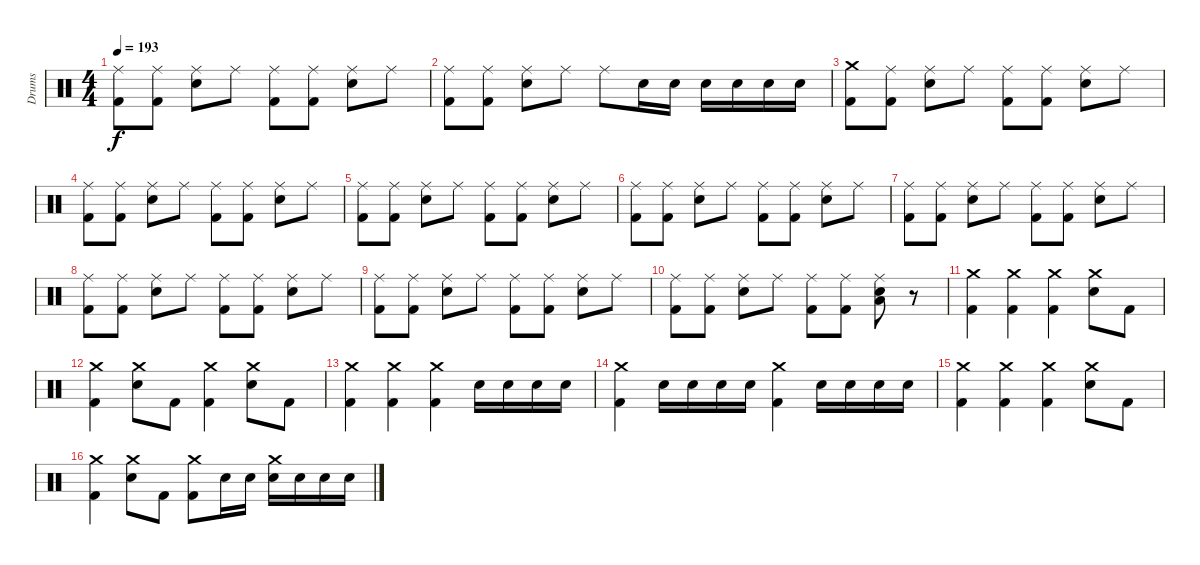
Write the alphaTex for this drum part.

\track ("Drums" "Drums") {instrument percussion}
\staff {score}
\articulation defaults
\ts (4 4)
\tempo 193
\clef neutral
\ks c
("Ride (middle)" "Kick (hit) 2").8{dy f} ("Ride (middle)" "Kick (hit) 2").8 ("Ride (middle)" "Snare (hit) 2").8 "Ride (middle)".8 ("Ride (middle)" "Kick (hit) 2").8 ("Ride (middle)" "Kick (hit) 2").8 ("Ride (middle)" "Snare (hit) 2").8 "Ride (middle)".8 |
("Ride (middle)" "Kick (hit) 2").8 ("Ride (middle)" "Kick (hit) 2").8 ("Ride (middle)" "Snare (hit) 2").8 "Ride (middle)".8 "Ride (middle)".8 "Snare (hit) 2".16 "Snare (hit) 2".16 "Snare (hit) 2".16 "Snare (hit) 2".16 "Snare (hit) 2".16 "Snare (hit) 2".16 |
("Crash medium (hit)" "Kick (hit) 2").8 ("Ride (middle)" "Kick (hit) 2").8 ("Ride (middle)" "Snare (hit) 2").8 "Ride (middle)".8 ("Ride (middle)" "Kick (hit) 2").8 ("Ride (middle)" "Kick (hit) 2").8 ("Ride (middle)" "Snare (hit) 2").8 "Ride (middle)".8 |
("Ride (middle)" "Kick (hit) 2").8 ("Ride (middle)" "Kick (hit) 2").8 ("Ride (middle)" "Snare (hit) 2").8 "Ride (middle)".8 ("Ride (middle)" "Kick (hit) 2").8 ("Ride (middle)" "Kick (hit) 2").8 ("Ride (middle)" "Snare (hit) 2").8 "Ride (middle)".8 |
("Ride (middle)" "Kick (hit) 2").8 ("Ride (middle)" "Kick (hit) 2").8 ("Ride (middle)" "Snare (hit) 2").8 "Ride (middle)".8 ("Ride (middle)" "Kick (hit) 2").8 ("Ride (middle)" "Kick (hit) 2").8 ("Ride (middle)" "Snare (hit) 2").8 "Ride (middle)".8 |
("Ride (middle)" "Kick (hit) 2").8 ("Ride (middle)" "Kick (hit) 2").8 ("Ride (middle)" "Snare (hit) 2").8 "Ride (middle)".8 ("Ride (middle)" "Kick (hit) 2").8 ("Ride (middle)" "Kick (hit) 2").8 ("Ride (middle)" "Snare (hit) 2").8 "Ride (middle)".8 |
("Ride (middle)" "Kick (hit) 2").8 ("Ride (middle)" "Kick (hit) 2").8 ("Ride (middle)" "Snare (hit) 2").8 "Ride (middle)".8 ("Ride (middle)" "Kick (hit) 2").8 ("Ride (middle)" "Kick (hit) 2").8 ("Ride (middle)" "Snare (hit) 2").8 "Ride (middle)".8 |
("Ride (middle)" "Kick (hit) 2").8 ("Ride (middle)" "Kick (hit) 2").8 ("Ride (middle)" "Snare (hit) 2").8 "Ride (middle)".8 ("Ride (middle)" "Kick (hit) 2").8 ("Ride (middle)" "Kick (hit) 2").8 ("Ride (middle)" "Snare (hit) 2").8 "Ride (middle)".8 |
("Ride (middle)" "Kick (hit) 2").8 ("Ride (middle)" "Kick (hit) 2").8 ("Ride (middle)" "Snare (hit) 2").8 "Ride (middle)".8 ("Ride (middle)" "Kick (hit) 2").8 ("Ride (middle)" "Kick (hit) 2").8 ("Ride (middle)" "Snare (hit) 2").8 "Ride (middle)".8 |
("Ride (middle)" "Kick (hit) 2").8 ("Ride (middle)" "Kick (hit) 2").8 ("Ride (middle)" "Snare (hit) 2").8 "Ride (middle)".8 ("Ride (middle)" "Kick (hit) 2").8 ("Ride (middle)" "Kick (hit) 2").8 ("Ride (middle)" "Snare (hit) 2" "Low Tom (hit)").8 r.8 |
("Crash medium (hit)" "Kick (hit) 2").4 ("Crash medium (hit)" "Kick (hit) 2").4 ("Crash medium (hit)" "Kick (hit) 2").4 ("Crash medium (hit)" "Snare (hit) 2").8 "Kick (hit) 2".8 |
("Crash medium (hit)" "Kick (hit) 2").4 ("Crash medium (hit)" "Snare (hit) 2").8 "Kick (hit) 2".8 ("Crash medium (hit)" "Kick (hit) 2").4 ("Crash medium (hit)" "Snare (hit) 2").8 "Kick (hit) 2".8 |
("Crash medium (hit)" "Kick (hit) 2").4 ("Crash medium (hit)" "Kick (hit) 2").4 ("Crash medium (hit)" "Kick (hit) 2").4 "Snare (hit) 2".16 "Snare (hit) 2".16 "Snare (hit) 2".16 "Snare (hit) 2".16 |
("Crash medium (hit)" "Kick (hit) 2").4 "Snare (hit) 2".16 "Snare (hit) 2".16 "Snare (hit) 2".16 "Snare (hit) 2".16 ("Crash medium (hit)" "Kick (hit) 2").4 "Snare (hit) 2".16 "Snare (hit) 2".16 "Snare (hit) 2".16 "Snare (hit) 2".16 |
("Crash medium (hit)" "Kick (hit) 2").4 ("Crash medium (hit)" "Kick (hit) 2").4 ("Crash medium (hit)" "Kick (hit) 2").4 ("Crash medium (hit)" "Snare (hit) 2").8 "Kick (hit) 2".8 |
("Crash medium (hit)" "Kick (hit) 2").4 ("Crash medium (hit)" "Snare (hit) 2").8 "Kick (hit) 2".8 ("Crash medium (hit)" "Kick (hit) 2").8 "Snare (hit) 2".16 "Snare (hit) 2".16 ("Crash medium (hit)" "Snare (hit) 2").16 "Snare (hit) 2".16 "Snare (hit) 2".16 "Snare (hit) 2".16
